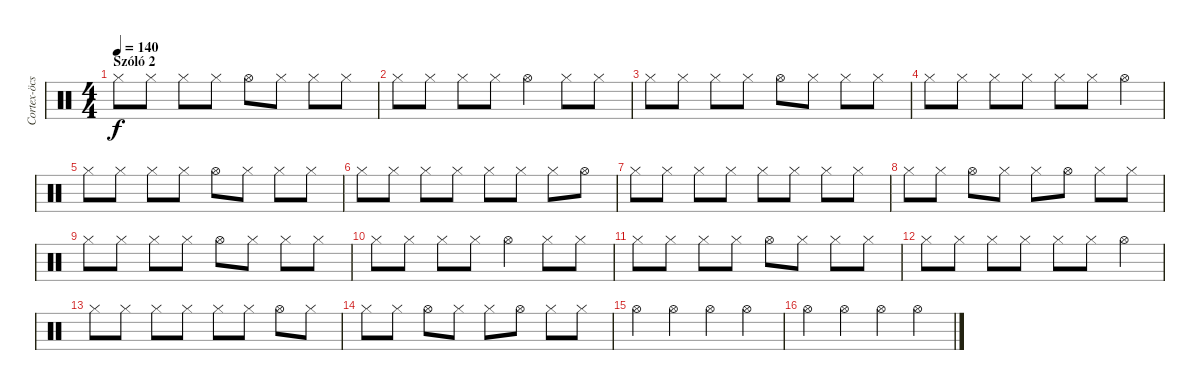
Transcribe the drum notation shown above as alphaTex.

\track ("Cortex-öcsi :)" "Cortex-öcs") {instrument percussion}
\staff {score}
\articulation defaults
\ts (4 4)
\section ("" "Szóló 2")
\tempo 140
\clef neutral
\ks c "Hi-Hat (closed)".8{dy f} "Hi-Hat (closed)".8 "Hi-Hat (closed)".8 "Hi-Hat (closed)".8 "Hi-Hat (open)".8 "Hi-Hat (closed)".8 "Hi-Hat (closed)".8 "Hi-Hat (closed)".8
|
"Hi-Hat (closed)".8 "Hi-Hat (closed)".8 "Hi-Hat (closed)".8 "Hi-Hat (closed)".8 "Hi-Hat (open)".4 "Hi-Hat (closed)".8 "Hi-Hat (closed)".8 |
"Hi-Hat (closed)".8 "Hi-Hat (closed)".8 "Hi-Hat (closed)".8 "Hi-Hat (closed)".8 "Hi-Hat (open)".8 "Hi-Hat (closed)".8 "Hi-Hat (closed)".8 "Hi-Hat (closed)".8 |
"Hi-Hat (closed)".8 "Hi-Hat (closed)".8 "Hi-Hat (closed)".8 "Hi-Hat (closed)".8 "Hi-Hat (closed)".8 "Hi-Hat (closed)".8 "Hi-Hat (open)".4 |
"Hi-Hat (closed)".8 "Hi-Hat (closed)".8 "Hi-Hat (closed)".8 "Hi-Hat (closed)".8 "Hi-Hat (open)".8 "Hi-Hat (closed)".8 "Hi-Hat (closed)".8 "Hi-Hat (closed)".8 |
"Hi-Hat (closed)".8 "Hi-Hat (closed)".8 "Hi-Hat (closed)".8 "Hi-Hat (closed)".8 "Hi-Hat (closed)".8 "Hi-Hat (closed)".8 "Hi-Hat (closed)".8 "Hi-Hat (open)".8 |
"Hi-Hat (closed)".8 "Hi-Hat (closed)".8 "Hi-Hat (closed)".8 "Hi-Hat (closed)".8 "Hi-Hat (closed)".8 "Hi-Hat (closed)".8 "Hi-Hat (closed)".8 "Hi-Hat (closed)".8 |
"Hi-Hat (closed)".8 "Hi-Hat (closed)".8 "Hi-Hat (open)".8 "Hi-Hat (closed)".8 "Hi-Hat (closed)".8 "Hi-Hat (open)".8 "Hi-Hat (closed)".8 "Hi-Hat (closed)".8 |
"Hi-Hat (closed)".8 "Hi-Hat (closed)".8 "Hi-Hat (closed)".8 "Hi-Hat (closed)".8 "Hi-Hat (open)".8 "Hi-Hat (closed)".8 "Hi-Hat (closed)".8 "Hi-Hat (closed)".8 |
"Hi-Hat (closed)".8 "Hi-Hat (closed)".8 "Hi-Hat (closed)".8 "Hi-Hat (closed)".8 "Hi-Hat (open)".4 "Hi-Hat (closed)".8 "Hi-Hat (closed)".8 |
"Hi-Hat (closed)".8 "Hi-Hat (closed)".8 "Hi-Hat (closed)".8 "Hi-Hat (closed)".8 "Hi-Hat (open)".8 "Hi-Hat (closed)".8 "Hi-Hat (closed)".8 "Hi-Hat (closed)".8 |
"Hi-Hat (closed)".8 "Hi-Hat (closed)".8 "Hi-Hat (closed)".8 "Hi-Hat (closed)".8 "Hi-Hat (closed)".8 "Hi-Hat (closed)".8 "Hi-Hat (open)".4 |
"Hi-Hat (closed)".8 "Hi-Hat (closed)".8 "Hi-Hat (closed)".8 "Hi-Hat (closed)".8 "Hi-Hat (closed)".8 "Hi-Hat (closed)".8 "Hi-Hat (open)".8 "Hi-Hat (closed)".8 |
"Hi-Hat (closed)".8 "Hi-Hat (closed)".8 "Hi-Hat (open)".8 "Hi-Hat (closed)".8 "Hi-Hat (closed)".8 "Hi-Hat (open)".8 "Hi-Hat (closed)".8 "Hi-Hat (closed)".8 |
"Hi-Hat (open)".4 "Hi-Hat (open)".4 "Hi-Hat (open)".4 "Hi-Hat (open)".4 |
"Hi-Hat (open)".4 "Hi-Hat (open)".4 "Hi-Hat (open)".4 "Hi-Hat (open)".4
